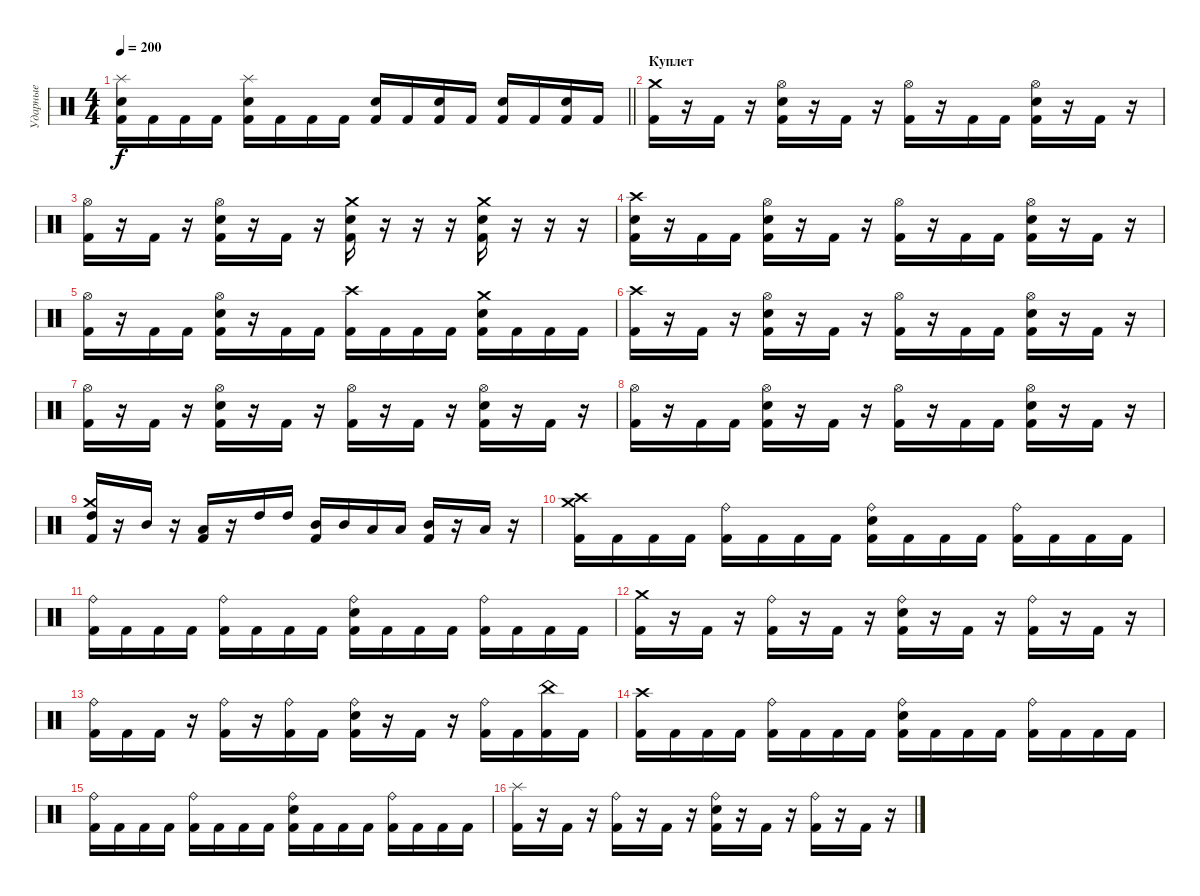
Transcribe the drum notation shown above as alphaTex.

\track ("Ударные" "Ударные") {instrument percussion}
\staff {score}
\articulation defaults
\ts (4 4)
\tempo 200
\clef neutral
\barLineRight lightlight
\ks c
("Kick (hit) 2" "Electric Snare (hit)" "Splash (hit)").16{dy f} "Kick (hit) 2".16 "Kick (hit) 2".16 "Kick (hit) 2".16 ("Kick (hit) 2" "Electric Snare (hit)" "Splash (hit)").16 "Kick (hit) 2".16 "Kick (hit) 2".16 "Kick (hit) 2".16 ("Kick (hit) 2" "Electric Snare (hit)").16 "Kick (hit) 2".16 ("Kick (hit) 2" "Electric Snare (hit)").16 "Kick (hit) 2".16 ("Kick (hit) 2" "Electric Snare (hit)").16 "Kick (hit) 2".16 ("Kick (hit) 2" "Electric Snare (hit)").16 "Kick (hit) 2".16 |
\section ("" "Куплет")
("Kick (hit) 2" "Crash medium (hit)").16 r.16 "Kick (hit) 2".16 r.16 ("Kick (hit) 2" "Electric Snare (hit)" "Hi-Hat (open)").16 r.16 "Kick (hit) 2".16 r.16 ("Kick (hit) 2" "Hi-Hat (open)").16 r.16 "Kick (hit) 2".16 "Kick (hit) 2".16 ("Kick (hit) 2" "Electric Snare (hit)" "Hi-Hat (open)").16 r.16 "Kick (hit) 2".16 r.16 |
("Kick (hit) 2" "Hi-Hat (open)").16 r.16 "Kick (hit) 2".16 r.16 ("Kick (hit) 2" "Electric Snare (hit)" "Hi-Hat (open)").16 r.16 "Kick (hit) 2".16 r.16 ("Kick (hit) 2" "Electric Snare (hit)" "Crash medium (hit)").16 r.16 r.16 r.16 ("Kick (hit) 2" "Electric Snare (hit)" "Crash medium (hit)").16 r.16 r.16 r.16 |
("Kick (hit) 2" "Electric Snare (hit)" "Crash high (hit)").16 r.16 "Kick (hit) 2".16 "Kick (hit) 2".16 ("Kick (hit) 2" "Electric Snare (hit)" "Hi-Hat (open)").16 r.16 "Kick (hit) 2".16 r.16 ("Kick (hit) 2" "Hi-Hat (open)").16 r.16 "Kick (hit) 2".16 "Kick (hit) 2".16 ("Kick (hit) 2" "Electric Snare (hit)" "Hi-Hat (open)").16 r.16 "Kick (hit) 2".16 r.16 |
("Kick (hit) 2" "Hi-Hat (open)").16 r.16 "Kick (hit) 2".16 "Kick (hit) 2".16 ("Kick (hit) 2" "Electric Snare (hit)" "Hi-Hat (open)").16 r.16 "Kick (hit) 2".16 "Kick (hit) 2".16 ("Kick (hit) 2" "Crash high (hit)").16 "Kick (hit) 2".16 "Kick (hit) 2".16 "Kick (hit) 2".16 ("Kick (hit) 2" "Electric Snare (hit)" "Crash medium (hit)").16 "Kick (hit) 2".16 "Kick (hit) 2".16 "Kick (hit) 2".16 |
("Kick (hit) 2" "Crash high (hit)").16 r.16 "Kick (hit) 2".16 r.16 ("Kick (hit) 2" "Electric Snare (hit)" "Hi-Hat (open)").16 r.16 "Kick (hit) 2".16 r.16 ("Kick (hit) 2" "Hi-Hat (open)").16 r.16 "Kick (hit) 2".16 "Kick (hit) 2".16 ("Kick (hit) 2" "Electric Snare (hit)" "Hi-Hat (open)").16 r.16 "Kick (hit) 2".16 r.16 |
("Kick (hit) 2" "Hi-Hat (open)").16 r.16 "Kick (hit) 2".16 r.16 ("Kick (hit) 2" "Electric Snare (hit)" "Hi-Hat (open)").16 r.16 "Kick (hit) 2".16 r.16 ("Kick (hit) 2" "Hi-Hat (open)").16 r.16 "Kick (hit) 2".16 r.16 ("Kick (hit) 2" "Electric Snare (hit)" "Hi-Hat (open)").16 r.16 "Kick (hit) 2".16 r.16 |
("Kick (hit) 2" "Hi-Hat (open)").16 r.16 "Kick (hit) 2".16 "Kick (hit) 2".16 ("Kick (hit) 2" "Electric Snare (hit)" "Hi-Hat (open)").16 r.16 "Kick (hit) 2".16 r.16 ("Kick (hit) 2" "Hi-Hat (open)").16 r.16 "Kick (hit) 2".16 "Kick (hit) 2".16 ("Kick (hit) 2" "Electric Snare (hit)" "Hi-Hat (open)").16 r.16 "Kick (hit) 2".16 r.16 |
("Kick (hit) 2" "High Tom (hit)" "Crash medium (hit)").16 r.16 "Mid Tom (hit)".16 r.16 ("Kick (hit) 2" "Low Tom (hit)").16 r.16 "High Tom (hit)".16 "High Tom (hit)".16 ("Kick (hit) 2" "Mid Tom (hit)").16 "Mid Tom (hit)".16 "Low Tom (hit)".16 "Low Tom (hit)".16 ("Kick (hit) 2" "Mid Tom (hit)").16 r.16 "Low Tom (hit)".16 r.16 |
("Kick (hit) 2" "Crash high (hit)" "Crash medium (hit)").16 "Kick (hit) 2".16 "Kick (hit) 2".16 "Kick (hit) 2".16 ("Kick (hit) 2" "Ride (bell)").16 "Kick (hit) 2".16 "Kick (hit) 2".16 "Kick (hit) 2".16 ("Kick (hit) 2" "Electric Snare (hit)" "Ride (bell)").16 "Kick (hit) 2".16 "Kick (hit) 2".16 "Kick (hit) 2".16 ("Kick (hit) 2" "Ride (bell)").16 "Kick (hit) 2".16 "Kick (hit) 2".16 "Kick (hit) 2".16 |
("Kick (hit) 2" "Ride (bell)").16 "Kick (hit) 2".16 "Kick (hit) 2".16 "Kick (hit) 2".16 ("Kick (hit) 2" "Ride (bell)").16 "Kick (hit) 2".16 "Kick (hit) 2".16 "Kick (hit) 2".16 ("Kick (hit) 2" "Electric Snare (hit)" "Ride (bell)").16 "Kick (hit) 2".16 "Kick (hit) 2".16 "Kick (hit) 2".16 ("Kick (hit) 2" "Ride (bell)").16 "Kick (hit) 2".16 "Kick (hit) 2".16 "Kick (hit) 2".16 |
("Kick (hit) 2" "Crash medium (hit)").16 r.16 "Kick (hit) 2".16 r.16 ("Kick (hit) 2" "Ride (bell)").16 r.16 "Kick (hit) 2".16 r.16 ("Kick (hit) 2" "Electric Snare (hit)" "Ride (bell)").16 r.16 "Kick (hit) 2".16 r.16 ("Kick (hit) 2" "Ride (bell)").16 r.16 "Kick (hit) 2".16 r.16 |
("Kick (hit) 2" "Ride (bell)").16 "Kick (hit) 2".16 "Kick (hit) 2".16 r.16 ("Kick (hit) 2" "Ride (bell)").16 r.16 ("Kick (hit) 2" "Ride (bell)").16 "Kick (hit) 2".16 ("Kick (hit) 2" "Electric Snare (hit)" "Ride (bell)").16 r.16 "Kick (hit) 2".16 r.16 ("Kick (hit) 2" "Ride (bell)").16 "Kick (hit) 2".16 ("Kick (hit) 2" "China (hit)").16 "Kick (hit) 2".16 |
("Kick (hit) 2" "Crash high (hit)").16 "Kick (hit) 2".16 "Kick (hit) 2".16 "Kick (hit) 2".16 ("Kick (hit) 2" "Ride (bell)").16 "Kick (hit) 2".16 "Kick (hit) 2".16 "Kick (hit) 2".16 ("Kick (hit) 2" "Electric Snare (hit)" "Ride (bell)").16 "Kick (hit) 2".16 "Kick (hit) 2".16 "Kick (hit) 2".16 ("Kick (hit) 2" "Ride (bell)").16 "Kick (hit) 2".16 "Kick (hit) 2".16 "Kick (hit) 2".16 |
("Kick (hit) 2" "Ride (bell)").16 "Kick (hit) 2".16 "Kick (hit) 2".16 "Kick (hit) 2".16 ("Kick (hit) 2" "Ride (bell)").16 "Kick (hit) 2".16 "Kick (hit) 2".16 "Kick (hit) 2".16 ("Kick (hit) 2" "Electric Snare (hit)" "Ride (bell)").16 "Kick (hit) 2".16 "Kick (hit) 2".16 "Kick (hit) 2".16 ("Kick (hit) 2" "Ride (bell)").16 "Kick (hit) 2".16 "Kick (hit) 2".16 "Kick (hit) 2".16 |
("Kick (hit) 2" "Splash (hit)").16 r.16 "Kick (hit) 2".16 r.16 ("Kick (hit) 2" "Ride (bell)").16 r.16 "Kick (hit) 2".16 r.16 ("Kick (hit) 2" "Electric Snare (hit)" "Ride (bell)").16 r.16 "Kick (hit) 2".16 r.16 ("Kick (hit) 2" "Ride (bell)").16 r.16 "Kick (hit) 2".16 r.16
